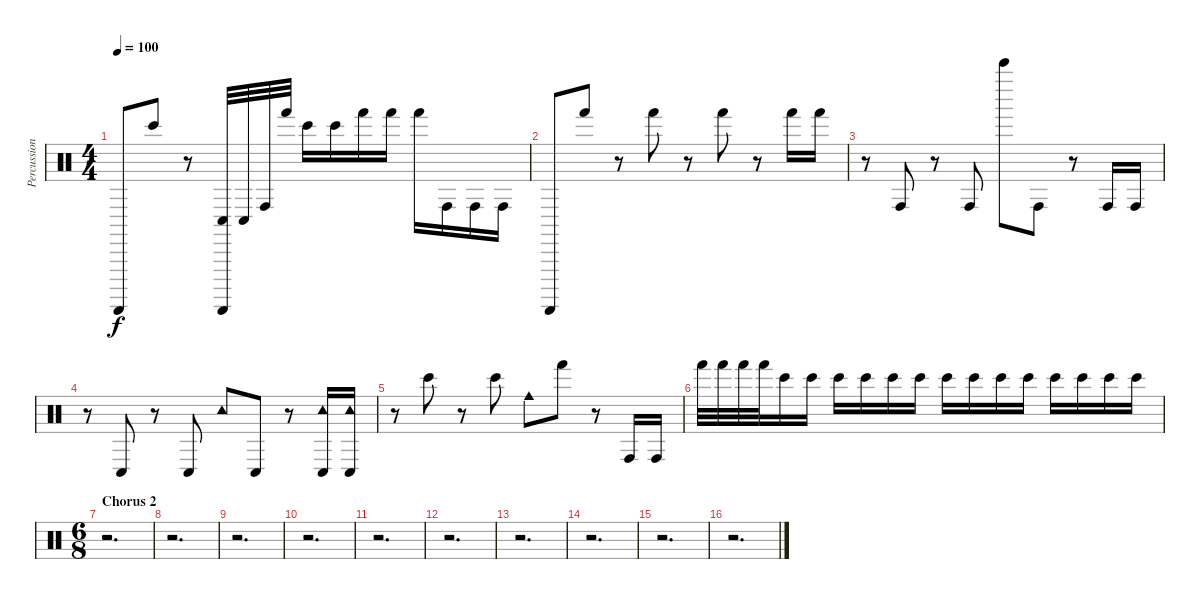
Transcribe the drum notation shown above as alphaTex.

\track ("Percussion" "Percussion") {instrument percussion}
\staff {score}
\articulation defaults
\ts (4 4)
\tempo 100
\clef neutral
\ks c "Guiro (scrap-return)".8{dy f} "Bongo High (hit)".8
r.8 ("Guiro (scrap-return)" "Conga low (hit)").32 "Conga low (hit)".32 "Conga high (hit)".32 "Hand (hit)".32 "Bongo High (hit)".16 "Bongo High (hit)".16 "Hand (hit)".16 "Hand (hit)".16 "Hand (hit)".16 "Conga high (hit)".16 "Conga high (hit)".16 "Conga high (hit)".16 |
"Guiro (scrap-return)".8 "Hand (hit)".8 r.8 "Hand (hit)".8 r.8 "Hand (hit)".8 r.8 "Hand (hit)".16 "Hand (hit)".16 |
r.8 "Conga high (hit)".8 r.8 "Conga high (hit)".8 "Bell Tree (hit)".8 "Conga high (hit)".8 r.8 "Conga high (hit)".16 "Conga high (hit)".16 |
r.8 "Conga low (hit)".8 r.8 "Conga low (hit)".8 "Tambourine (hit)".8 "Conga low (hit)".8 r.8 ("Tambourine (hit)" "Conga low (hit)").16 ("Tambourine (hit)" "Conga low (hit)").16 |
r.8 "Bongo High (hit)".8 r.8 "Bongo High (hit)".8 "Cowbell medium (hit)".8 "Hand (hit)".8 r.8 "Conga high (hit)".16 "Conga high (hit)".16 |
"Hand (hit)".32 "Hand (hit)".32 "Hand (hit)".32 "Hand (hit)".32 "Bongo High (hit)".16 "Bongo High (hit)".16 "Bongo High (hit)".16 "Bongo High (hit)".16 "Bongo High (hit)".16 "Bongo High (hit)".16 "Bongo High (hit)".16 "Bongo High (hit)".16 "Bongo High (hit)".16 "Bongo High (hit)".16 "Bongo High (hit)".16 "Bongo High (hit)".16 "Bongo High (hit)".16 "Bongo High (hit)".16 |
\ts (6 8)
\section ("" "Chorus 2")
r.2{d} |
r.2{d} |
r.2{d} |
r.2{d} |
r.2{d} |
r.2{d} |
r.2{d} |
r.2{d} |
r.2{d} |
r.2{d}
